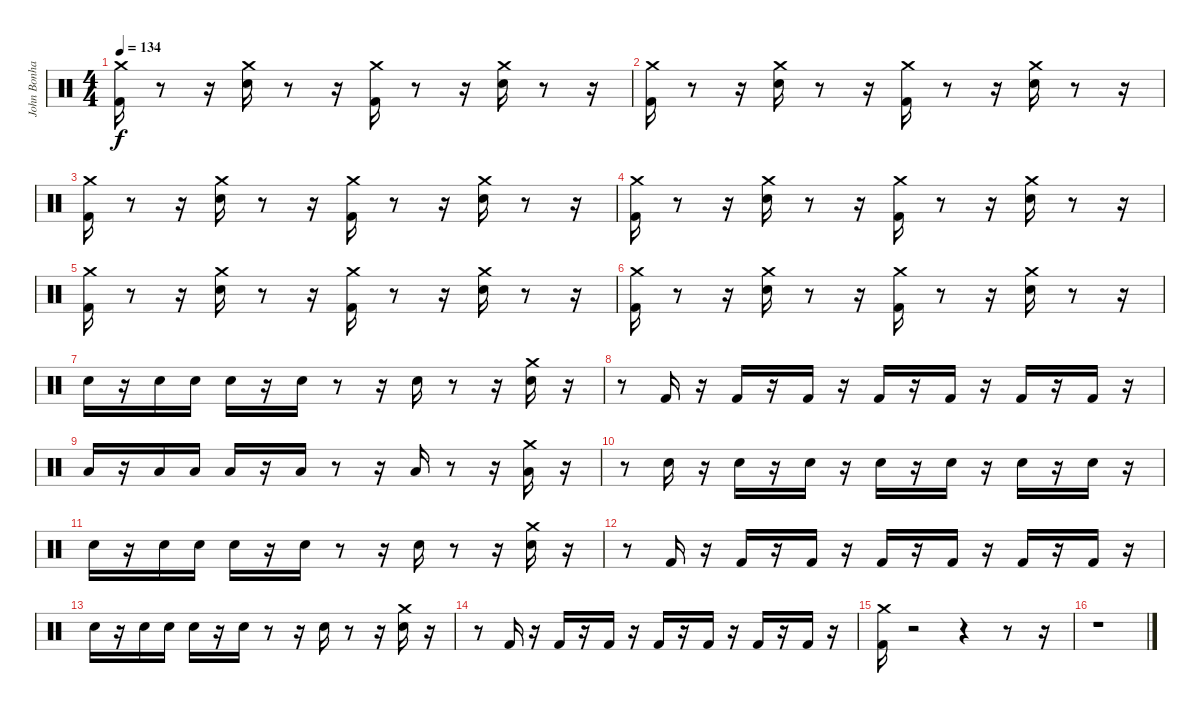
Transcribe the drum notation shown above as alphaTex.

\track ("John Bonham - Drums" "John Bonha") {instrument percussion}
\staff {score}
\articulation defaults
\ts (4 4)
\tempo 134
\clef neutral
\ks c
("Kick (hit) 2" "Crash medium (hit)").16{dy f} r.8 r.16 ("Snare (hit) 2" "Crash medium (hit)").16 r.8 r.16 ("Kick (hit) 2" "Crash medium (hit)").16 r.8 r.16 ("Snare (hit) 2" "Crash medium (hit)").16 r.8 r.16 |
("Kick (hit) 2" "Crash medium (hit)").16 r.8 r.16 ("Snare (hit) 2" "Crash medium (hit)").16 r.8 r.16 ("Kick (hit) 2" "Crash medium (hit)").16 r.8 r.16 ("Snare (hit) 2" "Crash medium (hit)").16 r.8 r.16 |
("Kick (hit) 2" "Crash medium (hit)").16 r.8 r.16 ("Snare (hit) 2" "Crash medium (hit)").16 r.8 r.16 ("Kick (hit) 2" "Crash medium (hit)").16 r.8 r.16 ("Snare (hit) 2" "Crash medium (hit)").16 r.8 r.16 |
("Kick (hit) 2" "Crash medium (hit)").16 r.8 r.16 ("Snare (hit) 2" "Crash medium (hit)").16 r.8 r.16 ("Kick (hit) 2" "Crash medium (hit)").16 r.8 r.16 ("Snare (hit) 2" "Crash medium (hit)").16 r.8 r.16 |
("Kick (hit) 2" "Crash medium (hit)").16 r.8 r.16 ("Snare (hit) 2" "Crash medium (hit)").16 r.8 r.16 ("Kick (hit) 2" "Crash medium (hit)").16 r.8 r.16 ("Snare (hit) 2" "Crash medium (hit)").16 r.8 r.16 |
("Kick (hit) 2" "Crash medium (hit)").16 r.8 r.16 ("Snare (hit) 2" "Crash medium (hit)").16 r.8 r.16 ("Kick (hit) 2" "Crash medium (hit)").16 r.8 r.16 ("Snare (hit) 2" "Crash medium (hit)").16 r.8 r.16 |
"Snare (hit) 2".16 r.16 "Snare (hit) 2".16 "Snare (hit) 2".16 "Snare (hit) 2".16 r.16 "Snare (hit) 2".16 r.8 r.16 "Snare (hit) 2".16 r.8 r.16 ("Snare (hit) 2" "Crash medium (hit)").16 r.16 |
r.8 "Kick (hit) 2".16 r.16 "Kick (hit) 2".16 r.16 "Kick (hit) 2".16 r.16 "Kick (hit) 2".16 r.16 "Kick (hit) 2".16 r.16 "Kick (hit) 2".16 r.16 "Kick (hit) 2".16 r.16 |
"Low Floor Tom (hit)".16 r.16 "Low Floor Tom (hit)".16 "Low Floor Tom (hit)".16 "Low Floor Tom (hit)".16 r.16 "Low Floor Tom (hit)".16 r.8 r.16 "Low Floor Tom (hit)".16 r.8 r.16 ("Low Floor Tom (hit)" "Crash medium (hit)").16 r.16 |
r.8 "Snare (hit) 2".16 r.16 "Snare (hit) 2".16 r.16 "Snare (hit) 2".16 r.16 "Snare (hit) 2".16 r.16 "Snare (hit) 2".16 r.16 "Snare (hit) 2".16 r.16 "Snare (hit) 2".16 r.16 |
"Snare (hit) 2".16 r.16 "Snare (hit) 2".16 "Snare (hit) 2".16 "Snare (hit) 2".16 r.16 "Snare (hit) 2".16 r.8 r.16 "Snare (hit) 2".16 r.8 r.16 ("Snare (hit) 2" "Crash medium (hit)").16 r.16 |
r.8 "Kick (hit) 2".16 r.16 "Kick (hit) 2".16 r.16 "Kick (hit) 2".16 r.16 "Kick (hit) 2".16 r.16 "Kick (hit) 2".16 r.16 "Kick (hit) 2".16 r.16 "Kick (hit) 2".16 r.16 |
"Snare (hit) 2".16 r.16 "Snare (hit) 2".16 "Snare (hit) 2".16 "Snare (hit) 2".16 r.16 "Snare (hit) 2".16 r.8 r.16 "Snare (hit) 2".16 r.8 r.16 ("Snare (hit) 2" "Crash medium (hit)").16 r.16 |
r.8 "Kick (hit) 2".16 r.16 "Kick (hit) 2".16 r.16 "Kick (hit) 2".16 r.16 "Kick (hit) 2".16 r.16 "Kick (hit) 2".16 r.16 "Kick (hit) 2".16 r.16 "Kick (hit) 2".16 r.16 |
("Kick (hit) 2" "Crash medium (hit)").16 r.2 r.4 r.8 r.16 |
r.1
